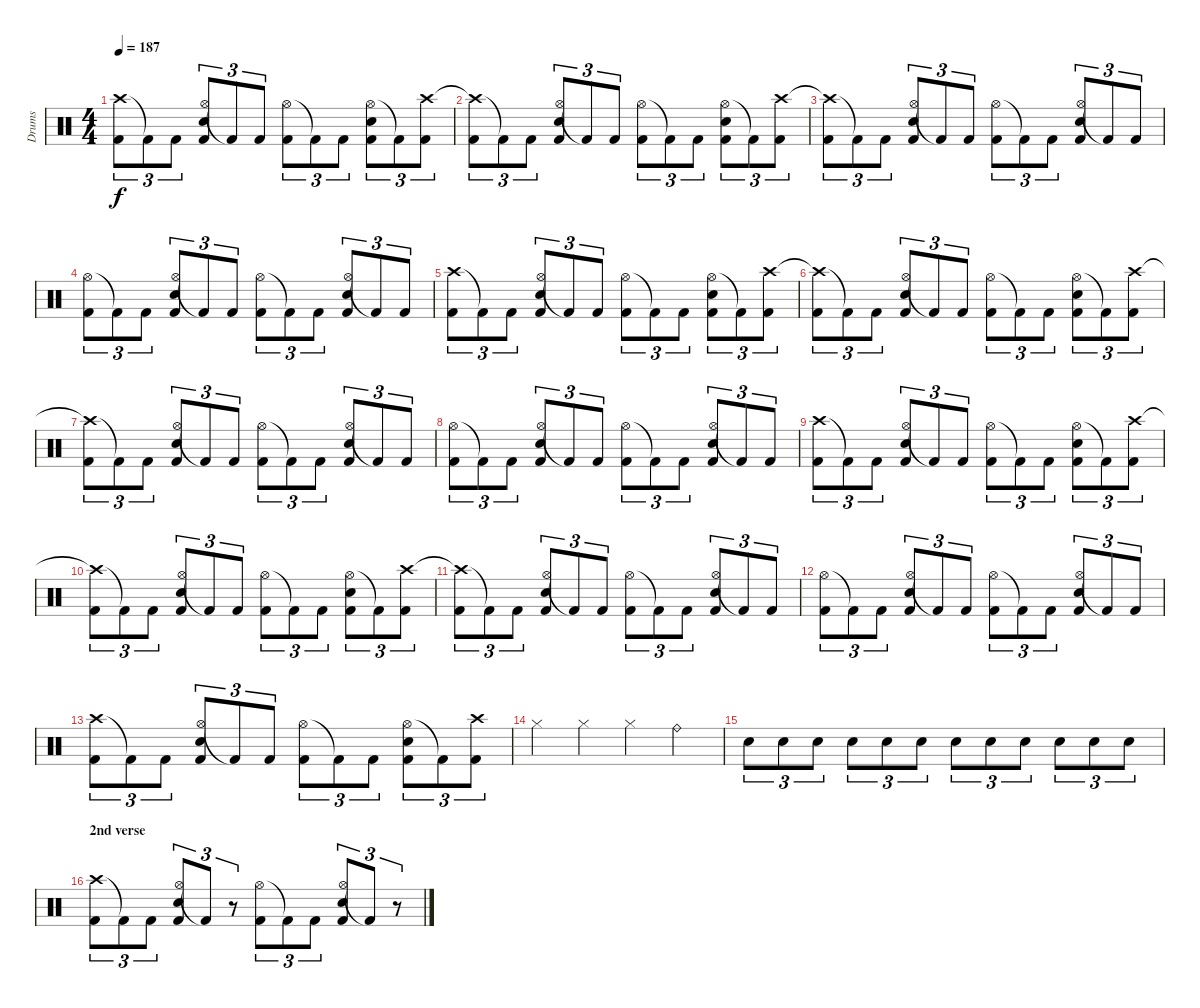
\track ("Drums" "Drums") {instrument percussion}
\staff {score}
\articulation defaults
\ts (4 4)
\tempo 187
\clef neutral
\ks c
("Crash high (hit)" "Kick (hit) 2").8{tu (3 2) dy f} "Kick (hit) 2"{t}.8{tu (3 2)} "Kick (hit) 2".8{tu (3 2)} ("Hi-Hat (open)" "Snare (hit) 2" "Kick (hit) 2").8{tu (3 2)} "Kick (hit) 2"{t}.8{tu (3 2)} "Kick (hit) 2".8{tu (3 2)} ("Hi-Hat (open)" "Kick (hit) 2").8{tu (3 2)} "Kick (hit) 2"{t}.8{tu (3 2)} "Kick (hit) 2".8{tu (3 2)} ("Hi-Hat (open)" "Snare (hit) 2" "Kick (hit) 2").8{tu (3 2)} "Kick (hit) 2"{t}.8{tu (3 2)} ("Crash high (hit)" "Kick (hit) 2").8{tu (3 2)} |
("Crash high (hit)"{t} "Kick (hit) 2").8{tu (3 2)} "Kick (hit) 2"{t}.8{tu (3 2)} "Kick (hit) 2".8{tu (3 2)} ("Hi-Hat (open)" "Snare (hit) 2" "Kick (hit) 2").8{tu (3 2)} "Kick (hit) 2"{t}.8{tu (3 2)} "Kick (hit) 2".8{tu (3 2)} ("Hi-Hat (open)" "Kick (hit) 2").8{tu (3 2)} "Kick (hit) 2"{t}.8{tu (3 2)} "Kick (hit) 2".8{tu (3 2)} ("Hi-Hat (open)" "Snare (hit) 2" "Kick (hit) 2").8{tu (3 2)} "Kick (hit) 2"{t}.8{tu (3 2)} ("Crash high (hit)" "Kick (hit) 2").8{tu (3 2)} |
("Crash high (hit)"{t} "Kick (hit) 2").8{tu (3 2)} "Kick (hit) 2"{t}.8{tu (3 2)} "Kick (hit) 2".8{tu (3 2)} ("Hi-Hat (open)" "Snare (hit) 2" "Kick (hit) 2").8{tu (3 2)} "Kick (hit) 2"{t}.8{tu (3 2)} "Kick (hit) 2".8{tu (3 2)} ("Hi-Hat (open)" "Kick (hit) 2").8{tu (3 2)} "Kick (hit) 2"{t}.8{tu (3 2)} "Kick (hit) 2".8{tu (3 2)} ("Hi-Hat (open)" "Snare (hit) 2" "Kick (hit) 2").8{tu (3 2)} "Kick (hit) 2"{t}.8{tu (3 2)} "Kick (hit) 2".8{tu (3 2)} |
("Hi-Hat (open)" "Kick (hit) 2").8{tu (3 2)} "Kick (hit) 2"{t}.8{tu (3 2)} "Kick (hit) 2".8{tu (3 2)} ("Hi-Hat (open)" "Snare (hit) 2" "Kick (hit) 2").8{tu (3 2)} "Kick (hit) 2"{t}.8{tu (3 2)} "Kick (hit) 2".8{tu (3 2)} ("Hi-Hat (open)" "Kick (hit) 2").8{tu (3 2)} "Kick (hit) 2"{t}.8{tu (3 2)} "Kick (hit) 2".8{tu (3 2)} ("Hi-Hat (open)" "Snare (hit) 2" "Kick (hit) 2").8{tu (3 2)} "Kick (hit) 2"{t}.8{tu (3 2)} "Kick (hit) 2".8{tu (3 2)} |
("Crash high (hit)" "Kick (hit) 2").8{tu (3 2)} "Kick (hit) 2"{t}.8{tu (3 2)} "Kick (hit) 2".8{tu (3 2)} ("Hi-Hat (open)" "Snare (hit) 2" "Kick (hit) 2").8{tu (3 2)} "Kick (hit) 2"{t}.8{tu (3 2)} "Kick (hit) 2".8{tu (3 2)} ("Hi-Hat (open)" "Kick (hit) 2").8{tu (3 2)} "Kick (hit) 2"{t}.8{tu (3 2)} "Kick (hit) 2".8{tu (3 2)} ("Hi-Hat (open)" "Snare (hit) 2" "Kick (hit) 2").8{tu (3 2)} "Kick (hit) 2"{t}.8{tu (3 2)} ("Crash high (hit)" "Kick (hit) 2").8{tu (3 2)} |
("Crash high (hit)"{t} "Kick (hit) 2").8{tu (3 2)} "Kick (hit) 2"{t}.8{tu (3 2)} "Kick (hit) 2".8{tu (3 2)} ("Hi-Hat (open)" "Snare (hit) 2" "Kick (hit) 2").8{tu (3 2)} "Kick (hit) 2"{t}.8{tu (3 2)} "Kick (hit) 2".8{tu (3 2)} ("Hi-Hat (open)" "Kick (hit) 2").8{tu (3 2)} "Kick (hit) 2"{t}.8{tu (3 2)} "Kick (hit) 2".8{tu (3 2)} ("Hi-Hat (open)" "Snare (hit) 2" "Kick (hit) 2").8{tu (3 2)} "Kick (hit) 2"{t}.8{tu (3 2)} ("Crash high (hit)" "Kick (hit) 2").8{tu (3 2)} |
("Crash high (hit)"{t} "Kick (hit) 2").8{tu (3 2)} "Kick (hit) 2"{t}.8{tu (3 2)} "Kick (hit) 2".8{tu (3 2)} ("Hi-Hat (open)" "Snare (hit) 2" "Kick (hit) 2").8{tu (3 2)} "Kick (hit) 2"{t}.8{tu (3 2)} "Kick (hit) 2".8{tu (3 2)} ("Hi-Hat (open)" "Kick (hit) 2").8{tu (3 2)} "Kick (hit) 2"{t}.8{tu (3 2)} "Kick (hit) 2".8{tu (3 2)} ("Hi-Hat (open)" "Snare (hit) 2" "Kick (hit) 2").8{tu (3 2)} "Kick (hit) 2"{t}.8{tu (3 2)} "Kick (hit) 2".8{tu (3 2)} |
("Hi-Hat (open)" "Kick (hit) 2").8{tu (3 2)} "Kick (hit) 2"{t}.8{tu (3 2)} "Kick (hit) 2".8{tu (3 2)} ("Hi-Hat (open)" "Snare (hit) 2" "Kick (hit) 2").8{tu (3 2)} "Kick (hit) 2"{t}.8{tu (3 2)} "Kick (hit) 2".8{tu (3 2)} ("Hi-Hat (open)" "Kick (hit) 2").8{tu (3 2)} "Kick (hit) 2"{t}.8{tu (3 2)} "Kick (hit) 2".8{tu (3 2)} ("Hi-Hat (open)" "Snare (hit) 2" "Kick (hit) 2").8{tu (3 2)} "Kick (hit) 2"{t}.8{tu (3 2)} "Kick (hit) 2".8{tu (3 2)} |
("Crash high (hit)" "Kick (hit) 2").8{tu (3 2)} "Kick (hit) 2"{t}.8{tu (3 2)} "Kick (hit) 2".8{tu (3 2)} ("Hi-Hat (open)" "Snare (hit) 2" "Kick (hit) 2").8{tu (3 2)} "Kick (hit) 2"{t}.8{tu (3 2)} "Kick (hit) 2".8{tu (3 2)} ("Hi-Hat (open)" "Kick (hit) 2").8{tu (3 2)} "Kick (hit) 2"{t}.8{tu (3 2)} "Kick (hit) 2".8{tu (3 2)} ("Hi-Hat (open)" "Snare (hit) 2" "Kick (hit) 2").8{tu (3 2)} "Kick (hit) 2"{t}.8{tu (3 2)} ("Crash high (hit)" "Kick (hit) 2").8{tu (3 2)} |
("Crash high (hit)"{t} "Kick (hit) 2").8{tu (3 2)} "Kick (hit) 2"{t}.8{tu (3 2)} "Kick (hit) 2".8{tu (3 2)} ("Hi-Hat (open)" "Snare (hit) 2" "Kick (hit) 2").8{tu (3 2)} "Kick (hit) 2"{t}.8{tu (3 2)} "Kick (hit) 2".8{tu (3 2)} ("Hi-Hat (open)" "Kick (hit) 2").8{tu (3 2)} "Kick (hit) 2"{t}.8{tu (3 2)} "Kick (hit) 2".8{tu (3 2)} ("Hi-Hat (open)" "Snare (hit) 2" "Kick (hit) 2").8{tu (3 2)} "Kick (hit) 2"{t}.8{tu (3 2)} ("Crash high (hit)" "Kick (hit) 2").8{tu (3 2)} |
("Crash high (hit)"{t} "Kick (hit) 2").8{tu (3 2)} "Kick (hit) 2"{t}.8{tu (3 2)} "Kick (hit) 2".8{tu (3 2)} ("Hi-Hat (open)" "Snare (hit) 2" "Kick (hit) 2").8{tu (3 2)} "Kick (hit) 2"{t}.8{tu (3 2)} "Kick (hit) 2".8{tu (3 2)} ("Hi-Hat (open)" "Kick (hit) 2").8{tu (3 2)} "Kick (hit) 2"{t}.8{tu (3 2)} "Kick (hit) 2".8{tu (3 2)} ("Hi-Hat (open)" "Snare (hit) 2" "Kick (hit) 2").8{tu (3 2)} "Kick (hit) 2"{t}.8{tu (3 2)} "Kick (hit) 2".8{tu (3 2)} |
("Hi-Hat (open)" "Kick (hit) 2").8{tu (3 2)} "Kick (hit) 2"{t}.8{tu (3 2)} "Kick (hit) 2".8{tu (3 2)} ("Hi-Hat (open)" "Snare (hit) 2" "Kick (hit) 2").8{tu (3 2)} "Kick (hit) 2"{t}.8{tu (3 2)} "Kick (hit) 2".8{tu (3 2)} ("Hi-Hat (open)" "Kick (hit) 2").8{tu (3 2)} "Kick (hit) 2"{t}.8{tu (3 2)} "Kick (hit) 2".8{tu (3 2)} ("Hi-Hat (open)" "Snare (hit) 2" "Kick (hit) 2").8{tu (3 2)} "Kick (hit) 2"{t}.8{tu (3 2)} "Kick (hit) 2".8{tu (3 2)} |
("Crash high (hit)" "Kick (hit) 2").8{tu (3 2)} "Kick (hit) 2"{t}.8{tu (3 2)} "Kick (hit) 2".8{tu (3 2)} ("Hi-Hat (open)" "Snare (hit) 2" "Kick (hit) 2").8{tu (3 2)} "Kick (hit) 2"{t}.8{tu (3 2)} "Kick (hit) 2".8{tu (3 2)} ("Hi-Hat (open)" "Kick (hit) 2").8{tu (3 2)} "Kick (hit) 2"{t}.8{tu (3 2)} "Kick (hit) 2".8{tu (3 2)} ("Hi-Hat (open)" "Snare (hit) 2" "Kick (hit) 2").8{tu (3 2)} "Kick (hit) 2"{t}.8{tu (3 2)} ("Crash high (hit)" "Kick (hit) 2").8{tu (3 2)} |
"Hi-Hat (closed)".4 "Hi-Hat (closed)".4 "Hi-Hat (closed)".4 "Ride (bell)".4 |
"Snare (hit) 2".8{tu (3 2)} "Snare (hit) 2".8{tu (3 2)} "Snare (hit) 2".8{tu (3 2)} "Snare (hit) 2".8{tu (3 2)} "Snare (hit) 2".8{tu (3 2)} "Snare (hit) 2".8{tu (3 2)} "Snare (hit) 2".8{tu (3 2)} "Snare (hit) 2".8{tu (3 2)} "Snare (hit) 2".8{tu (3 2)} "Snare (hit) 2".8{tu (3 2)} "Snare (hit) 2".8{tu (3 2)} "Snare (hit) 2".8{tu (3 2)} |
\section ("" "2nd verse")
("Crash high (hit)" "Kick (hit) 2").8{tu (3 2)} "Kick (hit) 2"{t}.8{tu (3 2)} "Kick (hit) 2".8{tu (3 2)} ("Hi-Hat (open)" "Snare (hit) 2" "Kick (hit) 2").8{tu (3 2)} "Kick (hit) 2"{t}.8{tu (3 2)} r.8{tu (3 2)} ("Hi-Hat (open)" "Kick (hit) 2").8{tu (3 2)} "Kick (hit) 2"{t}.8{tu (3 2)} "Kick (hit) 2".8{tu (3 2)} ("Hi-Hat (open)" "Snare (hit) 2" "Kick (hit) 2").8{tu (3 2)} "Kick (hit) 2"{t}.8{tu (3 2)} r.8{tu (3 2)}
